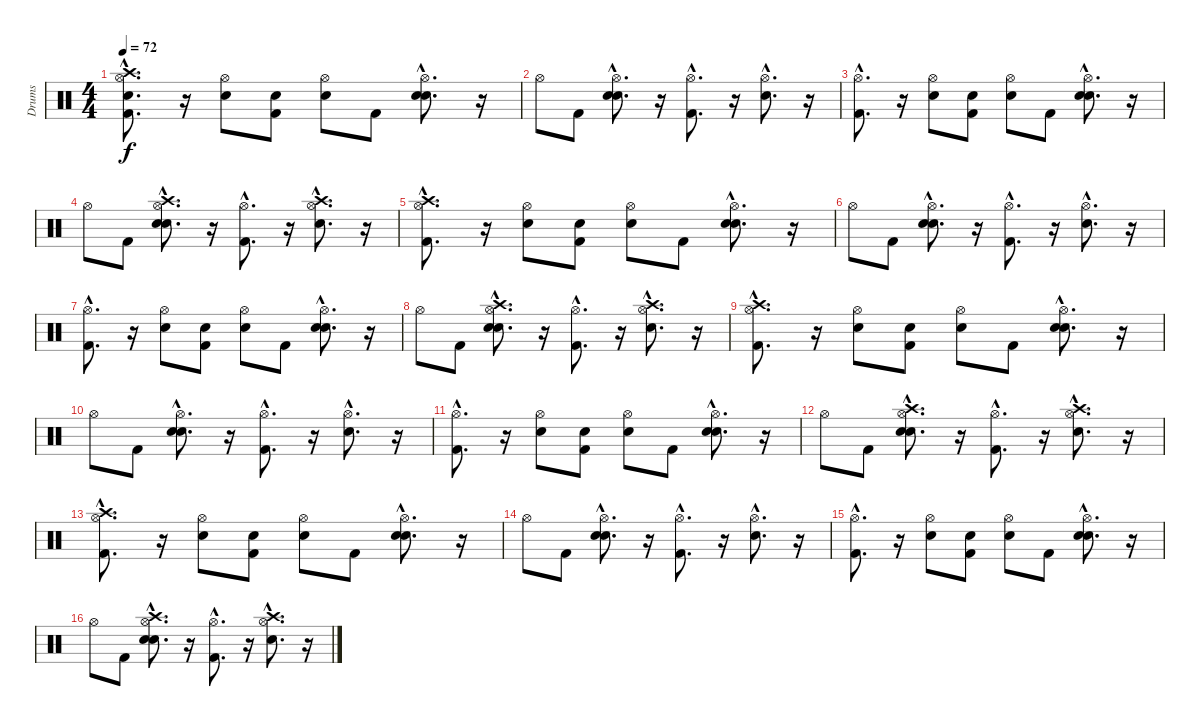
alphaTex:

\track ("Drums" "Drums") {instrument percussion}
\staff {score}
\articulation defaults
\ts (4 4)
\tempo 72
\clef neutral
\ks c
("Snare (hit)"{hac} "Kick (hit) 2"{hac} "Hi-Hat (open)"{hac} "Crash high (hit)"{hac}).8{d dy f} r.16 ("Snare (hit) 2" "Hi-Hat (open)").8 ("Snare (hit)" "Kick (hit) 2").8 ("Snare (hit)" "Hi-Hat (open)").8 "Kick (hit) 2".8 ("Snare (hit)"{hac} "Snare (hit) 2"{hac} "Hi-Hat (open)"{hac}).8{d} r.16 |
"Hi-Hat (open)".8 "Kick (hit) 2".8 ("Snare (hit)"{hac} "Snare (hit) 2"{hac} "Hi-Hat (open)"{hac}).8{d} r.16 ("Kick (hit) 2"{hac} "Hi-Hat (open)"{hac}).8{d} r.16 ("Snare (hit) 2"{hac} "Hi-Hat (open)"{hac}).8{d} r.16 |
("Kick (hit) 2"{hac} "Hi-Hat (open)"{hac}).8{d} r.16 ("Snare (hit) 2" "Hi-Hat (open)").8 ("Snare (hit)" "Kick (hit) 2").8 ("Snare (hit)" "Hi-Hat (open)").8 "Kick (hit) 2".8 ("Snare (hit)"{hac} "Snare (hit) 2"{hac} "Hi-Hat (open)"{hac}).8{d} r.16 |
"Hi-Hat (open)".8 "Kick (hit) 2".8 ("Snare (hit)"{hac} "Snare (hit) 2"{hac} "Hi-Hat (open)"{hac} "Crash high (hit)"{hac}).8{d} r.16 ("Kick (hit) 2"{hac} "Hi-Hat (open)"{hac}).8{d} r.16 ("Snare (hit) 2"{hac} "Hi-Hat (open)"{hac} "Crash high (hit)"{hac}).8{d} r.16 |
("Kick (hit) 2"{hac} "Hi-Hat (open)"{hac} "Crash high (hit)"{hac}).8{d} r.16 ("Snare (hit) 2" "Hi-Hat (open)").8 ("Snare (hit)" "Kick (hit) 2").8 ("Snare (hit)" "Hi-Hat (open)").8 "Kick (hit) 2".8 ("Snare (hit)"{hac} "Snare (hit) 2"{hac} "Hi-Hat (open)"{hac}).8{d} r.16 |
"Hi-Hat (open)".8 "Kick (hit) 2".8 ("Snare (hit)"{hac} "Snare (hit) 2"{hac} "Hi-Hat (open)"{hac}).8{d} r.16 ("Kick (hit) 2"{hac} "Hi-Hat (open)"{hac}).8{d} r.16 ("Snare (hit) 2"{hac} "Hi-Hat (open)"{hac}).8{d} r.16 |
("Kick (hit) 2"{hac} "Hi-Hat (open)"{hac}).8{d} r.16 ("Snare (hit) 2" "Hi-Hat (open)").8 ("Snare (hit)" "Kick (hit) 2").8 ("Snare (hit)" "Hi-Hat (open)").8 "Kick (hit) 2".8 ("Snare (hit)"{hac} "Snare (hit) 2"{hac} "Hi-Hat (open)"{hac}).8{d} r.16 |
"Hi-Hat (open)".8 "Kick (hit) 2".8 ("Snare (hit)"{hac} "Snare (hit) 2"{hac} "Hi-Hat (open)"{hac} "Crash high (hit)"{hac}).8{d} r.16 ("Kick (hit) 2"{hac} "Hi-Hat (open)"{hac}).8{d} r.16 ("Snare (hit) 2"{hac} "Hi-Hat (open)"{hac} "Crash high (hit)"{hac}).8{d} r.16 |
("Kick (hit) 2"{hac} "Hi-Hat (open)"{hac} "Crash high (hit)"{hac}).8{d} r.16 ("Snare (hit) 2" "Hi-Hat (open)").8 ("Snare (hit)" "Kick (hit) 2").8 ("Snare (hit)" "Hi-Hat (open)").8 "Kick (hit) 2".8 ("Snare (hit)"{hac} "Snare (hit) 2"{hac} "Hi-Hat (open)"{hac}).8{d} r.16 |
"Hi-Hat (open)".8 "Kick (hit) 2".8 ("Snare (hit)"{hac} "Snare (hit) 2"{hac} "Hi-Hat (open)"{hac}).8{d} r.16 ("Kick (hit) 2"{hac} "Hi-Hat (open)"{hac}).8{d} r.16 ("Snare (hit) 2"{hac} "Hi-Hat (open)"{hac}).8{d} r.16 |
("Kick (hit) 2"{hac} "Hi-Hat (open)"{hac}).8{d} r.16 ("Snare (hit) 2" "Hi-Hat (open)").8 ("Snare (hit)" "Kick (hit) 2").8 ("Snare (hit)" "Hi-Hat (open)").8 "Kick (hit) 2".8 ("Snare (hit)"{hac} "Snare (hit) 2"{hac} "Hi-Hat (open)"{hac}).8{d} r.16 |
"Hi-Hat (open)".8 "Kick (hit) 2".8 ("Snare (hit)"{hac} "Snare (hit) 2"{hac} "Hi-Hat (open)"{hac} "Crash high (hit)"{hac}).8{d} r.16 ("Kick (hit) 2"{hac} "Hi-Hat (open)"{hac}).8{d} r.16 ("Snare (hit) 2"{hac} "Hi-Hat (open)"{hac} "Crash high (hit)"{hac}).8{d} r.16 |
("Kick (hit) 2"{hac} "Hi-Hat (open)"{hac} "Crash high (hit)"{hac}).8{d} r.16 ("Snare (hit) 2" "Hi-Hat (open)").8 ("Snare (hit)" "Kick (hit) 2").8 ("Snare (hit)" "Hi-Hat (open)").8 "Kick (hit) 2".8 ("Snare (hit)"{hac} "Snare (hit) 2"{hac} "Hi-Hat (open)"{hac}).8{d} r.16 |
"Hi-Hat (open)".8 "Kick (hit) 2".8 ("Snare (hit)"{hac} "Snare (hit) 2"{hac} "Hi-Hat (open)"{hac}).8{d} r.16 ("Kick (hit) 2"{hac} "Hi-Hat (open)"{hac}).8{d} r.16 ("Snare (hit) 2"{hac} "Hi-Hat (open)"{hac}).8{d} r.16 |
("Kick (hit) 2"{hac} "Hi-Hat (open)"{hac}).8{d} r.16 ("Snare (hit) 2" "Hi-Hat (open)").8 ("Snare (hit)" "Kick (hit) 2").8 ("Snare (hit)" "Hi-Hat (open)").8 "Kick (hit) 2".8 ("Snare (hit)"{hac} "Snare (hit) 2"{hac} "Hi-Hat (open)"{hac}).8{d} r.16 |
"Hi-Hat (open)".8 "Kick (hit) 2".8 ("Snare (hit)"{hac} "Snare (hit) 2"{hac} "Hi-Hat (open)"{hac} "Crash high (hit)"{hac}).8{d} r.16 ("Kick (hit) 2"{hac} "Hi-Hat (open)"{hac}).8{d} r.16 ("Snare (hit) 2"{hac} "Hi-Hat (open)"{hac} "Crash high (hit)"{hac}).8{d} r.16
